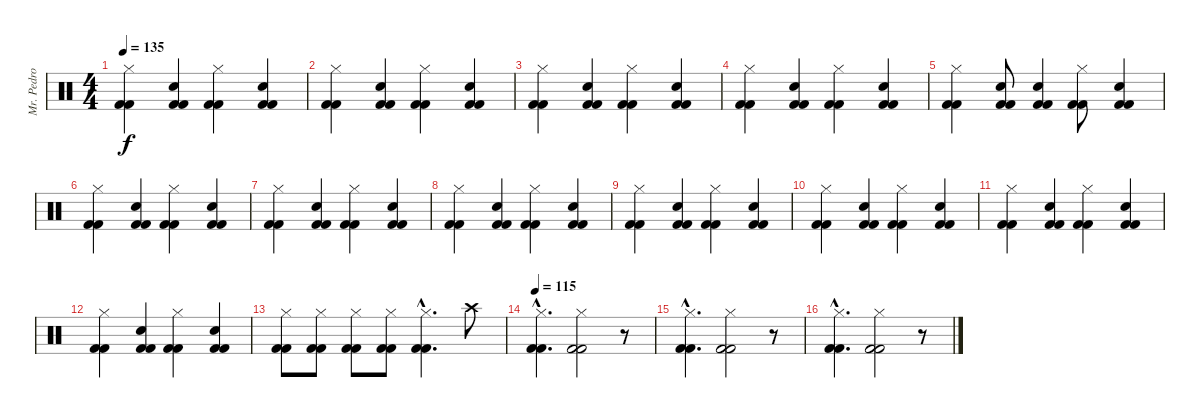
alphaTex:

\track ("Mr. Pedro Andreu" "Mr. Pedro ") {instrument percussion}
\staff {score}
\articulation defaults
\ts (4 4)
\tempo 135
\clef neutral
\ks c
("Hi-Hat (closed)" "Kick (hit) 2" "Kick (hit) 2").4{dy f} ("Snare (hit) 2" "Kick (hit) 2" "Kick (hit) 2").4 ("Hi-Hat (closed)" "Kick (hit) 2" "Kick (hit) 2").4 ("Snare (hit) 2" "Kick (hit) 2" "Kick (hit) 2").4 |
("Hi-Hat (closed)" "Kick (hit) 2" "Kick (hit) 2").4 ("Snare (hit) 2" "Kick (hit) 2" "Kick (hit) 2").4 ("Hi-Hat (closed)" "Kick (hit) 2" "Kick (hit) 2").4 ("Snare (hit) 2" "Kick (hit) 2" "Kick (hit) 2").4 |
("Hi-Hat (closed)" "Kick (hit) 2" "Kick (hit) 2").4 ("Snare (hit) 2" "Kick (hit) 2" "Kick (hit) 2").4 ("Hi-Hat (closed)" "Kick (hit) 2" "Kick (hit) 2").4 ("Snare (hit) 2" "Kick (hit) 2" "Kick (hit) 2").4 |
("Hi-Hat (closed)" "Kick (hit) 2" "Kick (hit) 2").4 ("Snare (hit) 2" "Kick (hit) 2" "Kick (hit) 2").4 ("Hi-Hat (closed)" "Kick (hit) 2" "Kick (hit) 2").4 ("Snare (hit) 2" "Kick (hit) 2" "Kick (hit) 2").4 |
("Hi-Hat (closed)" "Kick (hit) 2" "Kick (hit) 2").4 ("Snare (hit) 2" "Kick (hit) 2" "Kick (hit) 2").8 ("Snare (hit) 2" "Kick (hit) 2" "Kick (hit) 2").4 ("Hi-Hat (closed)" "Kick (hit) 2" "Kick (hit) 2").8 ("Snare (hit) 2" "Kick (hit) 2" "Kick (hit) 2").4 |
("Hi-Hat (closed)" "Kick (hit) 2" "Kick (hit) 2").4 ("Snare (hit) 2" "Kick (hit) 2" "Kick (hit) 2").4 ("Hi-Hat (closed)" "Kick (hit) 2" "Kick (hit) 2").4 ("Snare (hit) 2" "Kick (hit) 2" "Kick (hit) 2").4 |
("Hi-Hat (closed)" "Kick (hit) 2" "Kick (hit) 2").4 ("Snare (hit) 2" "Kick (hit) 2" "Kick (hit) 2").4 ("Hi-Hat (closed)" "Kick (hit) 2" "Kick (hit) 2").4 ("Snare (hit) 2" "Kick (hit) 2" "Kick (hit) 2").4 |
("Hi-Hat (closed)" "Kick (hit) 2" "Kick (hit) 2").4 ("Snare (hit) 2" "Kick (hit) 2" "Kick (hit) 2").4 ("Hi-Hat (closed)" "Kick (hit) 2" "Kick (hit) 2").4 ("Snare (hit) 2" "Kick (hit) 2" "Kick (hit) 2").4 |
("Hi-Hat (closed)" "Kick (hit) 2" "Kick (hit) 2").4 ("Snare (hit) 2" "Kick (hit) 2" "Kick (hit) 2").4 ("Hi-Hat (closed)" "Kick (hit) 2" "Kick (hit) 2").4 ("Snare (hit) 2" "Kick (hit) 2" "Kick (hit) 2").4 |
("Hi-Hat (closed)" "Kick (hit) 2" "Kick (hit) 2").4 ("Snare (hit) 2" "Kick (hit) 2" "Kick (hit) 2").4 ("Hi-Hat (closed)" "Kick (hit) 2" "Kick (hit) 2").4 ("Snare (hit) 2" "Kick (hit) 2" "Kick (hit) 2").4 |
("Hi-Hat (closed)" "Kick (hit) 2" "Kick (hit) 2").4 ("Snare (hit) 2" "Kick (hit) 2" "Kick (hit) 2").4 ("Hi-Hat (closed)" "Kick (hit) 2" "Kick (hit) 2").4 ("Snare (hit) 2" "Kick (hit) 2" "Kick (hit) 2").4 |
("Hi-Hat (closed)" "Kick (hit) 2" "Kick (hit) 2").4 ("Snare (hit) 2" "Kick (hit) 2" "Kick (hit) 2").4 ("Hi-Hat (closed)" "Kick (hit) 2" "Kick (hit) 2").4 ("Snare (hit) 2" "Kick (hit) 2" "Kick (hit) 2").4 |
("Hi-Hat (closed)" "Kick (hit) 2" "Kick (hit) 2").8 ("Hi-Hat (closed)" "Kick (hit) 2" "Kick (hit) 2").8 ("Hi-Hat (closed)" "Kick (hit) 2" "Kick (hit) 2").8 ("Hi-Hat (closed)" "Kick (hit) 2" "Kick (hit) 2").8 ("Hi-Hat (closed)"{hac} "Kick (hit) 2"{hac} "Kick (hit) 2"{hac}).4{d} "Crash high (hit)".8 |
\tempo 115
("Kick (hit) 2"{hac} "Hi-Hat (closed)"{hac} "Kick (hit) 2"{hac}).4{d} ("Kick (hit) 2" "Hi-Hat (closed)" "Kick (hit) 2").2 r.8 |
("Kick (hit) 2"{hac} "Hi-Hat (closed)"{hac} "Kick (hit) 2"{hac}).4{d} ("Kick (hit) 2" "Hi-Hat (closed)" "Kick (hit) 2").2 r.8 |
("Kick (hit) 2"{hac} "Hi-Hat (closed)"{hac} "Kick (hit) 2"{hac}).4{d} ("Kick (hit) 2" "Hi-Hat (closed)" "Kick (hit) 2").2 r.8
